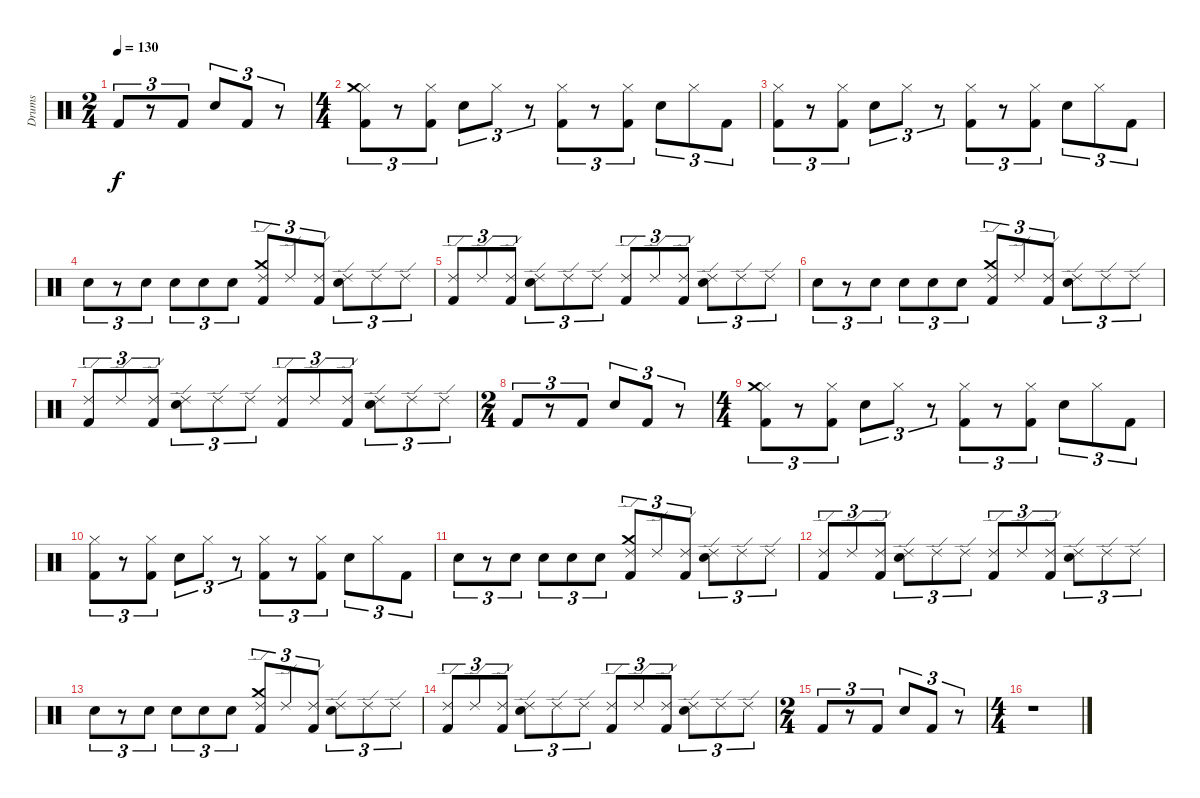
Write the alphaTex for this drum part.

\track ("Drums" "Drums") {instrument percussion}
\staff {score}
\articulation defaults
\ts (2 4)
\tempo 130
\clef neutral
\ks c "Kick (hit) 2".8{tu (3 2) dy f}
r.8{tu (3 2)} "Kick (hit) 2".8{tu (3 2)} "Electric Snare (hit)".8{tu (3 2)} "Kick (hit) 2".8{tu (3 2)} r.8{tu (3 2)} |
\ts (4 4)
("Kick (hit) 2" "Hi-Hat (closed)" "Crash medium (hit)").8{tu (3 2)} r.8{tu (3 2)} ("Kick (hit) 2" "Hi-Hat (closed)").8{tu (3 2)} "Electric Snare (hit)".8{tu (3 2)} "Hi-Hat (closed)".8{tu (3 2)} r.8{tu (3 2)} ("Kick (hit) 2" "Hi-Hat (closed)").8{tu (3 2)} r.8{tu (3 2)} ("Kick (hit) 2" "Hi-Hat (closed)").8{tu (3 2)} "Electric Snare (hit)".8{tu (3 2)} "Hi-Hat (closed)".8{tu (3 2)} "Kick (hit) 2".8{tu (3 2)} |
("Kick (hit) 2" "Hi-Hat (closed)").8{tu (3 2)} r.8{tu (3 2)} ("Kick (hit) 2" "Hi-Hat (closed)").8{tu (3 2)} "Electric Snare (hit)".8{tu (3 2)} "Hi-Hat (closed)".8{tu (3 2)} r.8{tu (3 2)} ("Kick (hit) 2" "Hi-Hat (closed)").8{tu (3 2)} r.8{tu (3 2)} ("Kick (hit) 2" "Hi-Hat (closed)").8{tu (3 2)} "Electric Snare (hit)".8{tu (3 2)} "Hi-Hat (closed)".8{tu (3 2)} "Kick (hit) 2".8{tu (3 2)} |
"Electric Snare (hit)".8{tu (3 2)} r.8{tu (3 2)} "Electric Snare (hit)".8{tu (3 2)} "Electric Snare (hit)".8{tu (3 2)} "Electric Snare (hit)".8{tu (3 2)} "Electric Snare (hit)".8{tu (3 2)} ("Kick (hit) 2" "Ride (edge) 2" "Crash medium (hit)").8{tu (3 2)} "Ride (edge) 2".8{tu (3 2)} ("Kick (hit) 2" "Ride (edge) 2").8{tu (3 2)} ("Ride (edge) 2" "Electric Snare (hit)").8{tu (3 2)} "Ride (edge) 2".8{tu (3 2)} "Ride (edge) 2".8{tu (3 2)} |
("Kick (hit) 2" "Ride (edge) 2").8{tu (3 2)} "Ride (edge) 2".8{tu (3 2)} ("Kick (hit) 2" "Ride (edge) 2").8{tu (3 2)} ("Electric Snare (hit)" "Ride (edge) 2").8{tu (3 2)} "Ride (edge) 2".8{tu (3 2)} "Ride (edge) 2".8{tu (3 2)} ("Kick (hit) 2" "Ride (edge) 2").8{tu (3 2)} "Ride (edge) 2".8{tu (3 2)} ("Kick (hit) 2" "Ride (edge) 2").8{tu (3 2)} ("Electric Snare (hit)" "Ride (edge) 2").8{tu (3 2)} "Ride (edge) 2".8{tu (3 2)} "Ride (edge) 2".8{tu (3 2)} |
"Electric Snare (hit)".8{tu (3 2)} r.8{tu (3 2)} "Electric Snare (hit)".8{tu (3 2)} "Electric Snare (hit)".8{tu (3 2)} "Electric Snare (hit)".8{tu (3 2)} "Electric Snare (hit)".8{tu (3 2)} ("Kick (hit) 2" "Ride (edge) 2" "Crash medium (hit)").8{tu (3 2)} "Ride (edge) 2".8{tu (3 2)} ("Kick (hit) 2" "Ride (edge) 2").8{tu (3 2)} ("Ride (edge) 2" "Electric Snare (hit)").8{tu (3 2)} "Ride (edge) 2".8{tu (3 2)} "Ride (edge) 2".8{tu (3 2)} |
("Kick (hit) 2" "Ride (edge) 2").8{tu (3 2)} "Ride (edge) 2".8{tu (3 2)} ("Kick (hit) 2" "Ride (edge) 2").8{tu (3 2)} ("Electric Snare (hit)" "Ride (edge) 2").8{tu (3 2)} "Ride (edge) 2".8{tu (3 2)} "Ride (edge) 2".8{tu (3 2)} ("Kick (hit) 2" "Ride (edge) 2").8{tu (3 2)} "Ride (edge) 2".8{tu (3 2)} ("Kick (hit) 2" "Ride (edge) 2").8{tu (3 2)} ("Electric Snare (hit)" "Ride (edge) 2").8{tu (3 2)} "Ride (edge) 2".8{tu (3 2)} "Ride (edge) 2".8{tu (3 2)} |
\ts (2 4)
"Kick (hit) 2".8{tu (3 2)} r.8{tu (3 2)} "Kick (hit) 2".8{tu (3 2)} "Electric Snare (hit)".8{tu (3 2)} "Kick (hit) 2".8{tu (3 2)} r.8{tu (3 2)} |
\ts (4 4)
("Kick (hit) 2" "Hi-Hat (closed)" "Crash medium (hit)").8{tu (3 2)} r.8{tu (3 2)} ("Kick (hit) 2" "Hi-Hat (closed)").8{tu (3 2)} "Electric Snare (hit)".8{tu (3 2)} "Hi-Hat (closed)".8{tu (3 2)} r.8{tu (3 2)} ("Kick (hit) 2" "Hi-Hat (closed)").8{tu (3 2)} r.8{tu (3 2)} ("Kick (hit) 2" "Hi-Hat (closed)").8{tu (3 2)} "Electric Snare (hit)".8{tu (3 2)} "Hi-Hat (closed)".8{tu (3 2)} "Kick (hit) 2".8{tu (3 2)} |
("Kick (hit) 2" "Hi-Hat (closed)").8{tu (3 2)} r.8{tu (3 2)} ("Kick (hit) 2" "Hi-Hat (closed)").8{tu (3 2)} "Electric Snare (hit)".8{tu (3 2)} "Hi-Hat (closed)".8{tu (3 2)} r.8{tu (3 2)} ("Kick (hit) 2" "Hi-Hat (closed)").8{tu (3 2)} r.8{tu (3 2)} ("Kick (hit) 2" "Hi-Hat (closed)").8{tu (3 2)} "Electric Snare (hit)".8{tu (3 2)} "Hi-Hat (closed)".8{tu (3 2)} "Kick (hit) 2".8{tu (3 2)} |
"Electric Snare (hit)".8{tu (3 2)} r.8{tu (3 2)} "Electric Snare (hit)".8{tu (3 2)} "Electric Snare (hit)".8{tu (3 2)} "Electric Snare (hit)".8{tu (3 2)} "Electric Snare (hit)".8{tu (3 2)} ("Kick (hit) 2" "Ride (edge) 2" "Crash medium (hit)").8{tu (3 2)} "Ride (edge) 2".8{tu (3 2)} ("Kick (hit) 2" "Ride (edge) 2").8{tu (3 2)} ("Ride (edge) 2" "Electric Snare (hit)").8{tu (3 2)} "Ride (edge) 2".8{tu (3 2)} "Ride (edge) 2".8{tu (3 2)} |
("Kick (hit) 2" "Ride (edge) 2").8{tu (3 2)} "Ride (edge) 2".8{tu (3 2)} ("Kick (hit) 2" "Ride (edge) 2").8{tu (3 2)} ("Electric Snare (hit)" "Ride (edge) 2").8{tu (3 2)} "Ride (edge) 2".8{tu (3 2)} "Ride (edge) 2".8{tu (3 2)} ("Kick (hit) 2" "Ride (edge) 2").8{tu (3 2)} "Ride (edge) 2".8{tu (3 2)} ("Kick (hit) 2" "Ride (edge) 2").8{tu (3 2)} ("Electric Snare (hit)" "Ride (edge) 2").8{tu (3 2)} "Ride (edge) 2".8{tu (3 2)} "Ride (edge) 2".8{tu (3 2)} |
"Electric Snare (hit)".8{tu (3 2)} r.8{tu (3 2)} "Electric Snare (hit)".8{tu (3 2)} "Electric Snare (hit)".8{tu (3 2)} "Electric Snare (hit)".8{tu (3 2)} "Electric Snare (hit)".8{tu (3 2)} ("Kick (hit) 2" "Ride (edge) 2" "Crash medium (hit)").8{tu (3 2)} "Ride (edge) 2".8{tu (3 2)} ("Kick (hit) 2" "Ride (edge) 2").8{tu (3 2)} ("Ride (edge) 2" "Electric Snare (hit)").8{tu (3 2)} "Ride (edge) 2".8{tu (3 2)} "Ride (edge) 2".8{tu (3 2)} |
("Kick (hit) 2" "Ride (edge) 2").8{tu (3 2)} "Ride (edge) 2".8{tu (3 2)} ("Kick (hit) 2" "Ride (edge) 2").8{tu (3 2)} ("Electric Snare (hit)" "Ride (edge) 2").8{tu (3 2)} "Ride (edge) 2".8{tu (3 2)} "Ride (edge) 2".8{tu (3 2)} ("Kick (hit) 2" "Ride (edge) 2").8{tu (3 2)} "Ride (edge) 2".8{tu (3 2)} ("Kick (hit) 2" "Ride (edge) 2").8{tu (3 2)} ("Electric Snare (hit)" "Ride (edge) 2").8{tu (3 2)} "Ride (edge) 2".8{tu (3 2)} "Ride (edge) 2".8{tu (3 2)} |
\ts (2 4)
"Kick (hit) 2".8{tu (3 2)} r.8{tu (3 2)} "Kick (hit) 2".8{tu (3 2)} "Electric Snare (hit)".8{tu (3 2)} "Kick (hit) 2".8{tu (3 2)} r.8{tu (3 2)} |
\ts (4 4)
r.1
